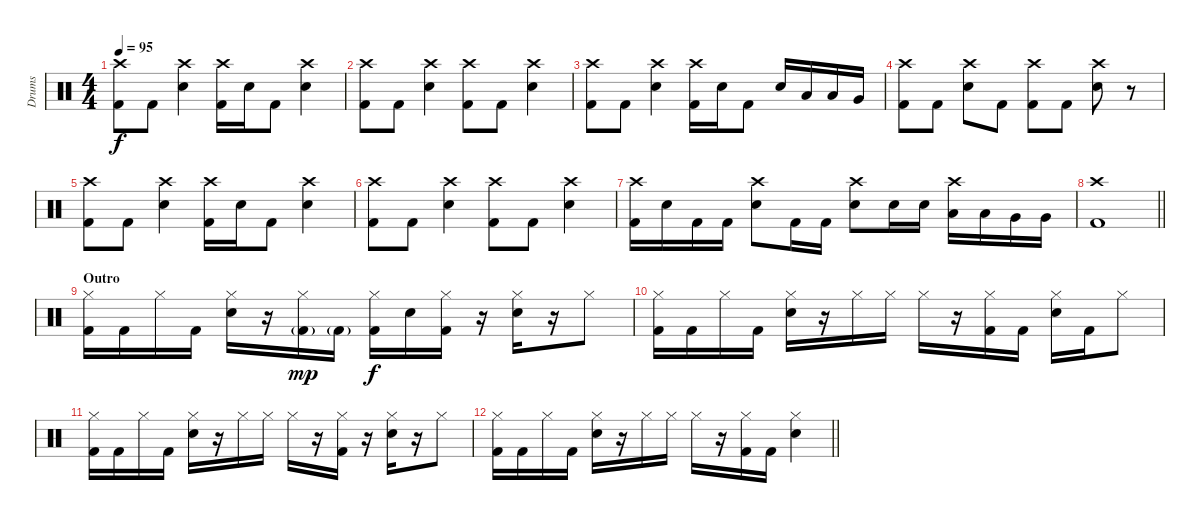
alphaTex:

\track ("Drums" "Drums") {instrument percussion}
\staff {score}
\articulation defaults
\ts (4 4)
\tempo 95
\clef neutral
\ks c
("Crash high (hit)" "Kick (hit) 2").8{dy f} "Kick (hit) 2".8 ("Crash high (hit)" "Electric Snare (hit)").4 ("Crash high (hit)" "Kick (hit) 2").16 "Electric Snare (hit)".16 "Kick (hit) 2".8 ("Crash high (hit)" "Electric Snare (hit)").4 |
("Crash high (hit)" "Kick (hit) 2").8 "Kick (hit) 2".8 ("Crash high (hit)" "Electric Snare (hit)").4 ("Crash high (hit)" "Kick (hit) 2").8 "Kick (hit) 2".8 ("Crash high (hit)" "Electric Snare (hit)").4 |
("Crash high (hit)" "Kick (hit) 2").8 "Kick (hit) 2".8 ("Crash high (hit)" "Electric Snare (hit)").4 ("Crash high (hit)" "Kick (hit) 2").16 "Electric Snare (hit)".16 "Kick (hit) 2".8 "Electric Snare (hit)".16 "Low Tom (hit)".16 "Low Tom (hit)".16 "Very Low Tom (hit)".16 |
("Crash high (hit)" "Kick (hit) 2").8 "Kick (hit) 2".8 ("Crash high (hit)" "Electric Snare (hit)").8 "Kick (hit) 2".8 ("Crash high (hit)" "Kick (hit) 2").8 "Kick (hit) 2".8 ("Crash high (hit)" "Electric Snare (hit)").8 r.8 |
("Crash high (hit)" "Kick (hit) 2").8 "Kick (hit) 2".8 ("Crash high (hit)" "Electric Snare (hit)").4 ("Crash high (hit)" "Kick (hit) 2").16 "Electric Snare (hit)".16 "Kick (hit) 2".8 ("Crash high (hit)" "Electric Snare (hit)").4 |
("Crash high (hit)" "Kick (hit) 2").8 "Kick (hit) 2".8 ("Crash high (hit)" "Electric Snare (hit)").4 ("Crash high (hit)" "Kick (hit) 2").8 "Kick (hit) 2".8 ("Crash high (hit)" "Electric Snare (hit)").4 |
("Crash high (hit)" "Kick (hit) 2").16 "Electric Snare (hit)".16 "Kick (hit) 2".16 "Kick (hit) 2".16 ("Crash high (hit)" "Electric Snare (hit)").8 "Kick (hit) 2".16 "Kick (hit) 2".16 ("Crash high (hit)" "Electric Snare (hit)").8 "Electric Snare (hit)".16 "Electric Snare (hit)".16 ("Crash high (hit)" "Low Tom (hit)").16 "Low Tom (hit)".16 "Very Low Tom (hit)".16 "Very Low Tom (hit)".16 |
\barLineRight lightlight
("Crash high (hit)" "Kick (hit) 2").1 |
\section ("" "Outro")
("Hi-Hat (closed)" "Kick (hit) 2").16 "Kick (hit) 2".16 "Hi-Hat (closed)".16 "Kick (hit) 2".16 ("Hi-Hat (closed)" "Electric Snare (hit)").16 r.16 ("Hi-Hat (closed)" "Kick (hit) 2"{g}).16{dy mp} "Kick (hit) 2"{g}.16 ("Hi-Hat (closed)" "Kick (hit) 2").16{dy f} "Electric Snare (hit)".16 ("Hi-Hat (closed)" "Kick (hit) 2").16 r.16 ("Hi-Hat (closed)" "Electric Snare (hit)").16 r.16 "Hi-Hat (closed)".8 |
("Hi-Hat (closed)" "Kick (hit) 2").16 "Kick (hit) 2".16 "Hi-Hat (closed)".16 "Kick (hit) 2".16 ("Hi-Hat (closed)" "Electric Snare (hit)").16 r.16 "Hi-Hat (closed)".16 "Hi-Hat (closed)".16 "Hi-Hat (closed)".16 r.16 ("Hi-Hat (closed)" "Kick (hit) 2").16 "Kick (hit) 2".16 ("Hi-Hat (closed)" "Electric Snare (hit)").16 "Kick (hit) 2".16 "Hi-Hat (closed)".8 |
("Hi-Hat (closed)" "Kick (hit) 2").16 "Kick (hit) 2".16 "Hi-Hat (closed)".16 "Kick (hit) 2".16 ("Hi-Hat (closed)" "Electric Snare (hit)").16 r.16 "Hi-Hat (closed)".16 "Hi-Hat (closed)".16 "Hi-Hat (closed)".16 r.16 ("Hi-Hat (closed)" "Kick (hit) 2").16 r.16 ("Hi-Hat (closed)" "Electric Snare (hit)").16 r.16 "Hi-Hat (closed)".8 |
\barLineRight lightlight
("Hi-Hat (closed)" "Kick (hit) 2").16 "Kick (hit) 2".16 "Hi-Hat (closed)".16 "Kick (hit) 2".16 ("Hi-Hat (closed)" "Electric Snare (hit)").16 r.16 "Hi-Hat (closed)".16 "Hi-Hat (closed)".16 "Hi-Hat (closed)".16 r.16 ("Hi-Hat (closed)" "Kick (hit) 2").16 "Kick (hit) 2".16 ("Hi-Hat (closed)" "Electric Snare (hit)").4
